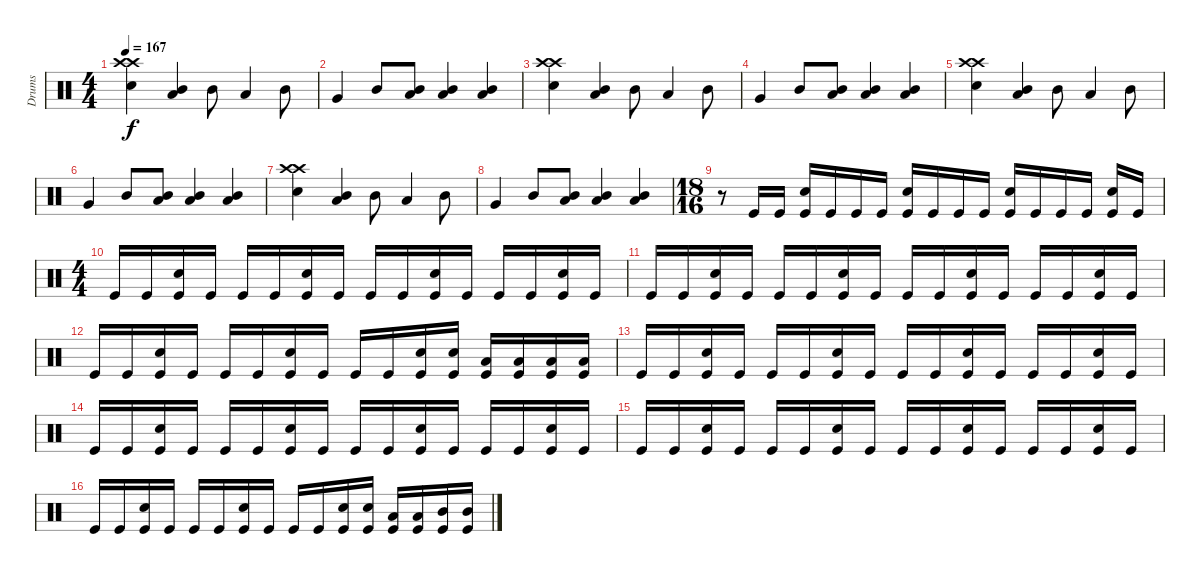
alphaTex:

\track ("Drums" "Drums") {instrument percussion}
\staff {score}
\articulation defaults
\ts (4 4)
\tempo 167
\clef neutral
\ks c
("Crash high (hit)" "Crash high (hit)" "Snare (hit) 2").4{dy f} ("Low Tom (hit)" "Mid Tom (hit)").4 "Mid Tom (hit)".8 "Low Tom (hit)".4 "Mid Tom (hit)".8 |
"Very Low Tom (hit)".4 "Mid Tom (hit)".8 ("Mid Tom (hit)" "Low Tom (hit)").8 ("Mid Tom (hit)" "Low Tom (hit)").4 ("Mid Tom (hit)" "Low Tom (hit)").4 |
("Crash high (hit)" "Crash high (hit)" "Snare (hit) 2").4 ("Low Tom (hit)" "Mid Tom (hit)").4 "Mid Tom (hit)".8 "Low Tom (hit)".4 "Mid Tom (hit)".8 |
"Very Low Tom (hit)".4 "Mid Tom (hit)".8 ("Mid Tom (hit)" "Low Tom (hit)").8 ("Mid Tom (hit)" "Low Tom (hit)").4 ("Mid Tom (hit)" "Low Tom (hit)").4 |
("Crash high (hit)" "Crash high (hit)" "Snare (hit) 2").4 ("Low Tom (hit)" "Mid Tom (hit)").4 "Mid Tom (hit)".8 "Low Tom (hit)".4 "Mid Tom (hit)".8 |
"Very Low Tom (hit)".4 "Mid Tom (hit)".8 ("Mid Tom (hit)" "Low Tom (hit)").8 ("Mid Tom (hit)" "Low Tom (hit)").4 ("Mid Tom (hit)" "Low Tom (hit)").4 |
("Crash high (hit)" "Crash high (hit)" "Snare (hit) 2").4 ("Low Tom (hit)" "Mid Tom (hit)").4 "Mid Tom (hit)".8 "Low Tom (hit)".4 "Mid Tom (hit)".8 |
"Very Low Tom (hit)".4 "Mid Tom (hit)".8 ("Mid Tom (hit)" "Low Tom (hit)").8 ("Mid Tom (hit)" "Low Tom (hit)").4 ("Mid Tom (hit)" "Low Tom (hit)").4 |
\ts (18 16)
r.8 "Kick (hit)".16 "Kick (hit)".16 ("Snare (hit) 2" "Kick (hit)").16 "Kick (hit)".16 "Kick (hit)".16 "Kick (hit)".16 ("Snare (hit) 2" "Kick (hit)").16 "Kick (hit)".16 "Kick (hit)".16 "Kick (hit)".16 ("Snare (hit) 2" "Kick (hit)").16 "Kick (hit)".16 "Kick (hit)".16 "Kick (hit)".16 ("Snare (hit) 2" "Kick (hit)").16 "Kick (hit)".16 |
\ts (4 4)
"Kick (hit)".16 "Kick (hit)".16 ("Snare (hit) 2" "Kick (hit)").16 "Kick (hit)".16 "Kick (hit)".16 "Kick (hit)".16 ("Snare (hit) 2" "Kick (hit)").16 "Kick (hit)".16 "Kick (hit)".16 "Kick (hit)".16 ("Snare (hit) 2" "Kick (hit)").16 "Kick (hit)".16 "Kick (hit)".16 "Kick (hit)".16 ("Snare (hit) 2" "Kick (hit)").16 "Kick (hit)".16 |
"Kick (hit)".16 "Kick (hit)".16 ("Snare (hit) 2" "Kick (hit)").16 "Kick (hit)".16 "Kick (hit)".16 "Kick (hit)".16 ("Snare (hit) 2" "Kick (hit)").16 "Kick (hit)".16 "Kick (hit)".16 "Kick (hit)".16 ("Snare (hit) 2" "Kick (hit)").16 "Kick (hit)".16 "Kick (hit)".16 "Kick (hit)".16 ("Snare (hit) 2" "Kick (hit)").16 "Kick (hit)".16 |
"Kick (hit)".16 "Kick (hit)".16 ("Snare (hit) 2" "Kick (hit)").16 "Kick (hit)".16 "Kick (hit)".16 "Kick (hit)".16 ("Snare (hit) 2" "Kick (hit)").16 "Kick (hit)".16 "Kick (hit)".16 "Kick (hit)".16 ("Snare (hit) 2" "Kick (hit)").16 ("Snare (hit) 2" "Kick (hit)").16 ("Low Floor Tom (hit)" "Kick (hit)").16 ("Low Floor Tom (hit)" "Kick (hit)").16 ("Low Tom (hit)" "Kick (hit)").16 ("Low Tom (hit)" "Kick (hit)").16 |
"Kick (hit)".16 "Kick (hit)".16 ("Snare (hit) 2" "Kick (hit)").16 "Kick (hit)".16 "Kick (hit)".16 "Kick (hit)".16 ("Snare (hit) 2" "Kick (hit)").16 "Kick (hit)".16 "Kick (hit)".16 "Kick (hit)".16 ("Snare (hit) 2" "Kick (hit)").16 "Kick (hit)".16 "Kick (hit)".16 "Kick (hit)".16 ("Snare (hit) 2" "Kick (hit)").16 "Kick (hit)".16 |
"Kick (hit)".16 "Kick (hit)".16 ("Snare (hit) 2" "Kick (hit)").16 "Kick (hit)".16 "Kick (hit)".16 "Kick (hit)".16 ("Snare (hit) 2" "Kick (hit)").16 "Kick (hit)".16 "Kick (hit)".16 "Kick (hit)".16 ("Snare (hit) 2" "Kick (hit)").16 "Kick (hit)".16 "Kick (hit)".16 "Kick (hit)".16 ("Snare (hit) 2" "Kick (hit)").16 "Kick (hit)".16 |
"Kick (hit)".16 "Kick (hit)".16 ("Snare (hit) 2" "Kick (hit)").16 "Kick (hit)".16 "Kick (hit)".16 "Kick (hit)".16 ("Snare (hit) 2" "Kick (hit)").16 "Kick (hit)".16 "Kick (hit)".16 "Kick (hit)".16 ("Snare (hit) 2" "Kick (hit)").16 "Kick (hit)".16 "Kick (hit)".16 "Kick (hit)".16 ("Snare (hit) 2" "Kick (hit)").16 "Kick (hit)".16 |
"Kick (hit)".16 "Kick (hit)".16 ("Snare (hit) 2" "Kick (hit)").16 "Kick (hit)".16 "Kick (hit)".16 "Kick (hit)".16 ("Snare (hit) 2" "Kick (hit)").16 "Kick (hit)".16 "Kick (hit)".16 "Kick (hit)".16 ("Snare (hit) 2" "Kick (hit)").16 ("Snare (hit) 2" "Kick (hit)").16 ("Low Floor Tom (hit)" "Kick (hit)").16 ("Low Floor Tom (hit)" "Kick (hit)").16 ("Mid Tom (hit)" "Kick (hit)").16 ("Mid Tom (hit)" "Kick (hit)").16
